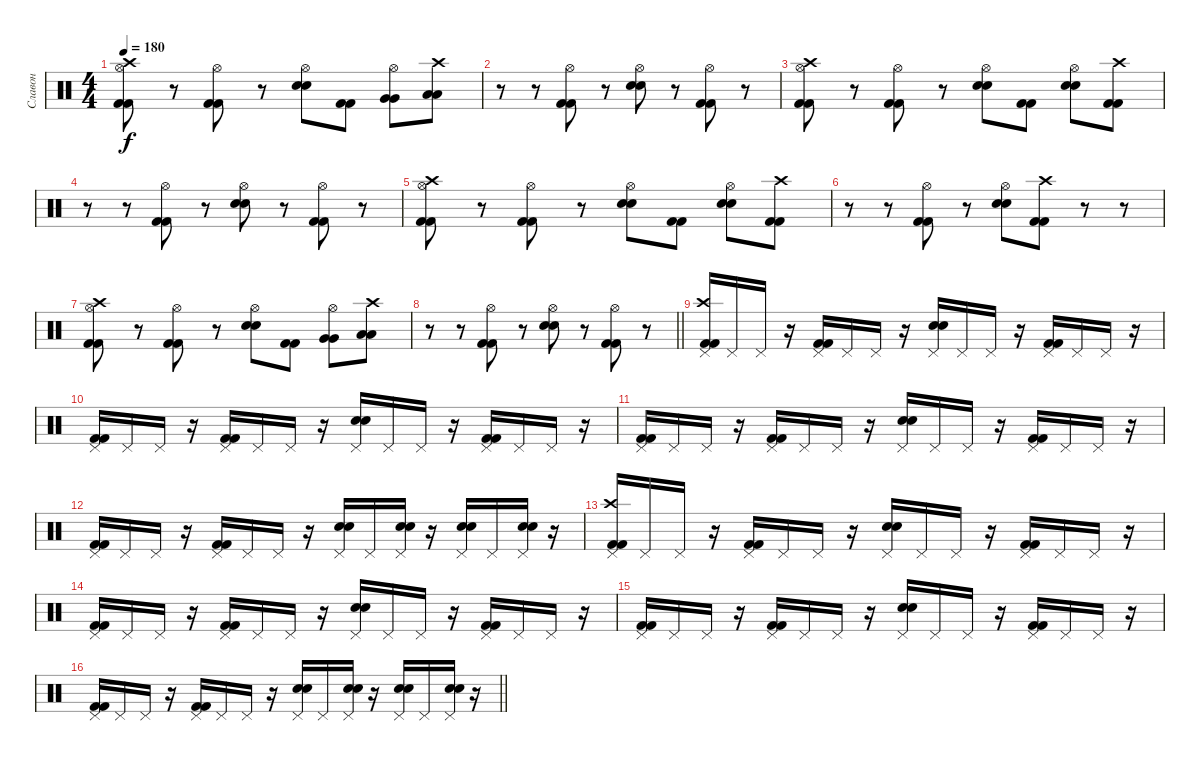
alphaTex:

\track ("Славон" "Славон") {instrument percussion}
\staff {score}
\articulation defaults
\ts (4 4)
\tempo 180
\clef neutral
\ks c
("Hi-Hat (open)" "Kick (hit) 2" "Kick (hit) 2" "Crash high (hit)").8{dy f} r.8 ("Hi-Hat (open)" "Kick (hit) 2" "Kick (hit) 2").8 r.8 ("Hi-Hat (open)" "Electric Snare (hit)" "Electric Snare (hit)").8 ("Kick (hit) 2" "Kick (hit) 2").8 ("Hi-Hat (open)" "Very Low Tom (hit)" "Very Low Tom (hit)").8 ("Low Floor Tom (hit)" "Low Floor Tom (hit)" "Crash high (hit)").8 |
r.8 r.8 ("Hi-Hat (open)" "Kick (hit) 2" "Kick (hit) 2").8 r.8 ("Hi-Hat (open)" "Electric Snare (hit)" "Electric Snare (hit)").8 r.8 ("Hi-Hat (open)" "Kick (hit) 2" "Kick (hit) 2").8 r.8 |
("Hi-Hat (open)" "Kick (hit) 2" "Kick (hit) 2" "Crash high (hit)").8 r.8 ("Hi-Hat (open)" "Kick (hit) 2" "Kick (hit) 2").8 r.8 ("Hi-Hat (open)" "Electric Snare (hit)" "Electric Snare (hit)").8 ("Kick (hit) 2" "Kick (hit) 2").8 ("Hi-Hat (open)" "Electric Snare (hit)" "Electric Snare (hit)").8 ("Kick (hit) 2" "Kick (hit) 2" "Crash high (hit)").8 |
r.8 r.8 ("Hi-Hat (open)" "Kick (hit) 2" "Kick (hit) 2").8 r.8 ("Hi-Hat (open)" "Electric Snare (hit)" "Electric Snare (hit)").8 r.8 ("Hi-Hat (open)" "Kick (hit) 2" "Kick (hit) 2").8 r.8 |
("Hi-Hat (open)" "Kick (hit) 2" "Kick (hit) 2" "Crash high (hit)").8 r.8 ("Hi-Hat (open)" "Kick (hit) 2" "Kick (hit) 2").8 r.8 ("Hi-Hat (open)" "Electric Snare (hit)" "Electric Snare (hit)").8 ("Kick (hit) 2" "Kick (hit) 2").8 ("Hi-Hat (open)" "Electric Snare (hit)" "Electric Snare (hit)").8 ("Kick (hit) 2" "Kick (hit) 2" "Crash high (hit)").8 |
r.8 r.8 ("Hi-Hat (open)" "Kick (hit) 2" "Kick (hit) 2").8 r.8 ("Hi-Hat (open)" "Electric Snare (hit)" "Electric Snare (hit)").8 ("Kick (hit) 2" "Kick (hit) 2" "Crash high (hit)").8 r.8 r.8 |
("Hi-Hat (open)" "Kick (hit) 2" "Kick (hit) 2" "Crash high (hit)").8 r.8 ("Hi-Hat (open)" "Kick (hit) 2" "Kick (hit) 2").8 r.8 ("Hi-Hat (open)" "Electric Snare (hit)" "Electric Snare (hit)").8 ("Kick (hit) 2" "Kick (hit) 2").8 ("Hi-Hat (open)" "Very Low Tom (hit)" "Very Low Tom (hit)").8 ("Low Floor Tom (hit)" "Low Floor Tom (hit)" "Crash high (hit)").8 |
\barLineRight lightlight
r.8 r.8 ("Hi-Hat (open)" "Kick (hit) 2" "Kick (hit) 2").8 r.8 ("Hi-Hat (open)" "Electric Snare (hit)" "Electric Snare (hit)").8 r.8 ("Hi-Hat (open)" "Kick (hit) 2" "Kick (hit) 2").8 r.8 |
\section ("" "")
("Pedal Hi-Hat (hit)" "Kick (hit) 2" "Kick (hit) 2" "Crash high (hit)").16 "Pedal Hi-Hat (hit)".16 "Pedal Hi-Hat (hit)".16 r.16 ("Pedal Hi-Hat (hit)" "Kick (hit) 2" "Kick (hit) 2").16 "Pedal Hi-Hat (hit)".16 "Pedal Hi-Hat (hit)".16 r.16 ("Pedal Hi-Hat (hit)" "Electric Snare (hit)" "Electric Snare (hit)").16 "Pedal Hi-Hat (hit)".16 "Pedal Hi-Hat (hit)".16 r.16 ("Pedal Hi-Hat (hit)" "Kick (hit) 2" "Kick (hit) 2").16 "Pedal Hi-Hat (hit)".16 "Pedal Hi-Hat (hit)".16 r.16 |
("Pedal Hi-Hat (hit)" "Kick (hit) 2" "Kick (hit) 2").16 "Pedal Hi-Hat (hit)".16 "Pedal Hi-Hat (hit)".16 r.16 ("Pedal Hi-Hat (hit)" "Kick (hit) 2" "Kick (hit) 2").16 "Pedal Hi-Hat (hit)".16 "Pedal Hi-Hat (hit)".16 r.16 ("Pedal Hi-Hat (hit)" "Electric Snare (hit)" "Electric Snare (hit)").16 "Pedal Hi-Hat (hit)".16 "Pedal Hi-Hat (hit)".16 r.16 ("Pedal Hi-Hat (hit)" "Kick (hit) 2" "Kick (hit) 2").16 "Pedal Hi-Hat (hit)".16 "Pedal Hi-Hat (hit)".16 r.16 |
("Pedal Hi-Hat (hit)" "Kick (hit) 2" "Kick (hit) 2").16 "Pedal Hi-Hat (hit)".16 "Pedal Hi-Hat (hit)".16 r.16 ("Pedal Hi-Hat (hit)" "Kick (hit) 2" "Kick (hit) 2").16 "Pedal Hi-Hat (hit)".16 "Pedal Hi-Hat (hit)".16 r.16 ("Pedal Hi-Hat (hit)" "Electric Snare (hit)" "Electric Snare (hit)").16 "Pedal Hi-Hat (hit)".16 "Pedal Hi-Hat (hit)".16 r.16 ("Pedal Hi-Hat (hit)" "Kick (hit) 2" "Kick (hit) 2").16 "Pedal Hi-Hat (hit)".16 "Pedal Hi-Hat (hit)".16 r.16 |
("Pedal Hi-Hat (hit)" "Kick (hit) 2" "Kick (hit) 2").16 "Pedal Hi-Hat (hit)".16 "Pedal Hi-Hat (hit)".16 r.16 ("Pedal Hi-Hat (hit)" "Kick (hit) 2" "Kick (hit) 2").16 "Pedal Hi-Hat (hit)".16 "Pedal Hi-Hat (hit)".16 r.16 ("Pedal Hi-Hat (hit)" "Electric Snare (hit)" "Electric Snare (hit)").16 "Pedal Hi-Hat (hit)".16 ("Pedal Hi-Hat (hit)" "Electric Snare (hit)" "Electric Snare (hit)").16 r.16 ("Pedal Hi-Hat (hit)" "Electric Snare (hit)" "Electric Snare (hit)").16 "Pedal Hi-Hat (hit)".16 ("Pedal Hi-Hat (hit)" "Electric Snare (hit)" "Electric Snare (hit)").16 r.16 |
("Pedal Hi-Hat (hit)" "Kick (hit) 2" "Kick (hit) 2" "Crash high (hit)").16 "Pedal Hi-Hat (hit)".16 "Pedal Hi-Hat (hit)".16 r.16 ("Pedal Hi-Hat (hit)" "Kick (hit) 2" "Kick (hit) 2").16 "Pedal Hi-Hat (hit)".16 "Pedal Hi-Hat (hit)".16 r.16 ("Pedal Hi-Hat (hit)" "Electric Snare (hit)" "Electric Snare (hit)").16 "Pedal Hi-Hat (hit)".16 "Pedal Hi-Hat (hit)".16 r.16 ("Pedal Hi-Hat (hit)" "Kick (hit) 2" "Kick (hit) 2").16 "Pedal Hi-Hat (hit)".16 "Pedal Hi-Hat (hit)".16 r.16 |
("Pedal Hi-Hat (hit)" "Kick (hit) 2" "Kick (hit) 2").16 "Pedal Hi-Hat (hit)".16 "Pedal Hi-Hat (hit)".16 r.16 ("Pedal Hi-Hat (hit)" "Kick (hit) 2" "Kick (hit) 2").16 "Pedal Hi-Hat (hit)".16 "Pedal Hi-Hat (hit)".16 r.16 ("Pedal Hi-Hat (hit)" "Electric Snare (hit)" "Electric Snare (hit)").16 "Pedal Hi-Hat (hit)".16 "Pedal Hi-Hat (hit)".16 r.16 ("Pedal Hi-Hat (hit)" "Kick (hit) 2" "Kick (hit) 2").16 "Pedal Hi-Hat (hit)".16 "Pedal Hi-Hat (hit)".16 r.16 |
("Pedal Hi-Hat (hit)" "Kick (hit) 2" "Kick (hit) 2").16 "Pedal Hi-Hat (hit)".16 "Pedal Hi-Hat (hit)".16 r.16 ("Pedal Hi-Hat (hit)" "Kick (hit) 2" "Kick (hit) 2").16 "Pedal Hi-Hat (hit)".16 "Pedal Hi-Hat (hit)".16 r.16 ("Pedal Hi-Hat (hit)" "Electric Snare (hit)" "Electric Snare (hit)").16 "Pedal Hi-Hat (hit)".16 "Pedal Hi-Hat (hit)".16 r.16 ("Pedal Hi-Hat (hit)" "Kick (hit) 2" "Kick (hit) 2").16 "Pedal Hi-Hat (hit)".16 "Pedal Hi-Hat (hit)".16 r.16 |
\barLineRight lightlight
("Pedal Hi-Hat (hit)" "Kick (hit) 2" "Kick (hit) 2").16 "Pedal Hi-Hat (hit)".16 "Pedal Hi-Hat (hit)".16 r.16 ("Pedal Hi-Hat (hit)" "Kick (hit) 2" "Kick (hit) 2").16 "Pedal Hi-Hat (hit)".16 "Pedal Hi-Hat (hit)".16 r.16 ("Pedal Hi-Hat (hit)" "Electric Snare (hit)" "Electric Snare (hit)").16 "Pedal Hi-Hat (hit)".16 ("Pedal Hi-Hat (hit)" "Electric Snare (hit)" "Electric Snare (hit)").16 r.16 ("Pedal Hi-Hat (hit)" "Electric Snare (hit)" "Electric Snare (hit)").16 "Pedal Hi-Hat (hit)".16 ("Pedal Hi-Hat (hit)" "Electric Snare (hit)" "Electric Snare (hit)").16 r.16
